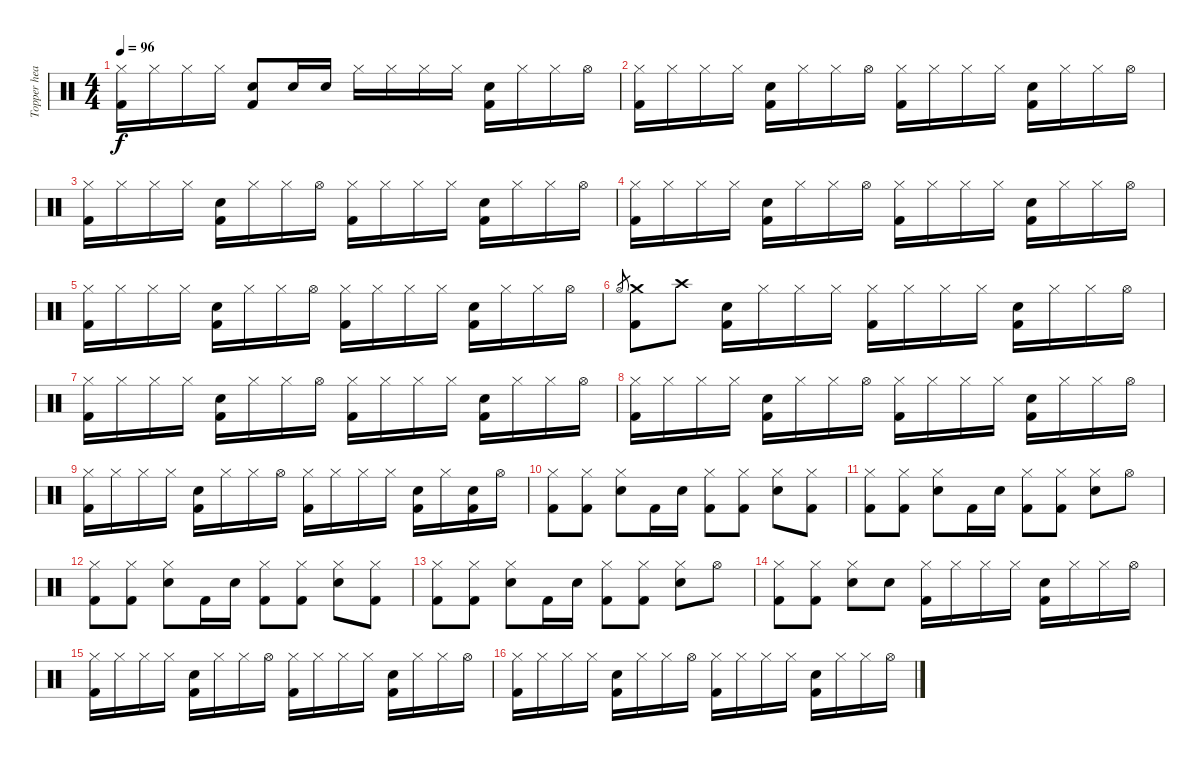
\track ("Topper headon (drum)" "Topper hea") {instrument percussion}
\staff {score}
\articulation defaults
\ts (4 4)
\tempo 96
\clef neutral
\ks c
("Hi-Hat (closed)" "Kick (hit) 2").16{dy f} "Hi-Hat (closed)".16 "Hi-Hat (closed)".16 "Hi-Hat (closed)".16 ("Electric Snare (hit)" "Kick (hit) 2").8 "Electric Snare (hit)".16 "Electric Snare (hit)".16 "Hi-Hat (closed)".16 "Hi-Hat (closed)".16 "Hi-Hat (closed)".16 "Hi-Hat (closed)".16 ("Electric Snare (hit)" "Kick (hit) 2").16 "Hi-Hat (closed)".16 "Hi-Hat (closed)".16 "Hi-Hat (open)".16 |
("Hi-Hat (closed)" "Kick (hit) 2").16 "Hi-Hat (closed)".16 "Hi-Hat (closed)".16 "Hi-Hat (closed)".16 ("Electric Snare (hit)" "Kick (hit) 2").16 "Hi-Hat (closed)".16 "Hi-Hat (closed)".16 "Hi-Hat (open)".16 ("Hi-Hat (closed)" "Kick (hit) 2").16 "Hi-Hat (closed)".16 "Hi-Hat (closed)".16 "Hi-Hat (closed)".16 ("Electric Snare (hit)" "Kick (hit) 2").16 "Hi-Hat (closed)".16 "Hi-Hat (closed)".16 "Hi-Hat (open)".16 |
("Hi-Hat (closed)" "Kick (hit) 2").16 "Hi-Hat (closed)".16 "Hi-Hat (closed)".16 "Hi-Hat (closed)".16 ("Electric Snare (hit)" "Kick (hit) 2").16 "Hi-Hat (closed)".16 "Hi-Hat (closed)".16 "Hi-Hat (open)".16 ("Hi-Hat (closed)" "Kick (hit) 2").16 "Hi-Hat (closed)".16 "Hi-Hat (closed)".16 "Hi-Hat (closed)".16 ("Electric Snare (hit)" "Kick (hit) 2").16 "Hi-Hat (closed)".16 "Hi-Hat (closed)".16 "Hi-Hat (open)".16 |
("Hi-Hat (closed)" "Kick (hit) 2").16 "Hi-Hat (closed)".16 "Hi-Hat (closed)".16 "Hi-Hat (closed)".16 ("Electric Snare (hit)" "Kick (hit) 2").16 "Hi-Hat (closed)".16 "Hi-Hat (closed)".16 "Hi-Hat (open)".16 ("Hi-Hat (closed)" "Kick (hit) 2").16 "Hi-Hat (closed)".16 "Hi-Hat (closed)".16 "Hi-Hat (closed)".16 ("Electric Snare (hit)" "Kick (hit) 2").16 "Hi-Hat (closed)".16 "Hi-Hat (closed)".16 "Hi-Hat (open)".16 |
("Hi-Hat (closed)" "Kick (hit) 2").16 "Hi-Hat (closed)".16 "Hi-Hat (closed)".16 "Hi-Hat (closed)".16 ("Electric Snare (hit)" "Kick (hit) 2").16 "Hi-Hat (closed)".16 "Hi-Hat (closed)".16 "Hi-Hat (open)".16 ("Hi-Hat (closed)" "Kick (hit) 2").16 "Hi-Hat (closed)".16 "Hi-Hat (closed)".16 "Hi-Hat (closed)".16 ("Electric Snare (hit)" "Kick (hit) 2").16 "Hi-Hat (closed)".16 "Hi-Hat (closed)".16 "Hi-Hat (open)".16 |
"Hi-Hat (open)".8{gr} ("Crash medium (hit)" "Kick (hit) 2").8 "Crash high (hit)".8 ("Electric Snare (hit)" "Kick (hit) 2").16 "Hi-Hat (closed)".16 "Hi-Hat (closed)".16 "Hi-Hat (closed)".16 ("Hi-Hat (closed)" "Kick (hit) 2").16 "Hi-Hat (closed)".16 "Hi-Hat (closed)".16 "Hi-Hat (closed)".16 ("Electric Snare (hit)" "Kick (hit) 2").16 "Hi-Hat (closed)".16 "Hi-Hat (closed)".16 "Hi-Hat (open)".16 |
("Hi-Hat (closed)" "Kick (hit) 2").16 "Hi-Hat (closed)".16 "Hi-Hat (closed)".16 "Hi-Hat (closed)".16 ("Electric Snare (hit)" "Kick (hit) 2").16 "Hi-Hat (closed)".16 "Hi-Hat (closed)".16 "Hi-Hat (open)".16 ("Hi-Hat (closed)" "Kick (hit) 2").16 "Hi-Hat (closed)".16 "Hi-Hat (closed)".16 "Hi-Hat (closed)".16 ("Electric Snare (hit)" "Kick (hit) 2").16 "Hi-Hat (closed)".16 "Hi-Hat (closed)".16 "Hi-Hat (open)".16 |
("Hi-Hat (closed)" "Kick (hit) 2").16 "Hi-Hat (closed)".16 "Hi-Hat (closed)".16 "Hi-Hat (closed)".16 ("Electric Snare (hit)" "Kick (hit) 2").16 "Hi-Hat (closed)".16 "Hi-Hat (closed)".16 "Hi-Hat (open)".16 ("Hi-Hat (closed)" "Kick (hit) 2").16 "Hi-Hat (closed)".16 "Hi-Hat (closed)".16 "Hi-Hat (closed)".16 ("Electric Snare (hit)" "Kick (hit) 2").16 "Hi-Hat (closed)".16 "Hi-Hat (closed)".16 "Hi-Hat (open)".16 |
("Hi-Hat (closed)" "Kick (hit) 2").16 "Hi-Hat (closed)".16 "Hi-Hat (closed)".16 "Hi-Hat (closed)".16 ("Electric Snare (hit)" "Kick (hit) 2").16 "Hi-Hat (closed)".16 "Hi-Hat (closed)".16 "Hi-Hat (open)".16 ("Hi-Hat (closed)" "Kick (hit) 2").16 "Hi-Hat (closed)".16 "Hi-Hat (closed)".16 "Hi-Hat (closed)".16 ("Electric Snare (hit)" "Kick (hit) 2").16 "Hi-Hat (closed)".16 ("Electric Snare (hit)" "Kick (hit) 2").16 "Hi-Hat (open)".16 |
("Hi-Hat (closed)" "Kick (hit) 2").8 ("Hi-Hat (closed)" "Kick (hit) 2").8 ("Hi-Hat (closed)" "Electric Snare (hit)").8 "Kick (hit) 2".16 "Electric Snare (hit)".16 ("Hi-Hat (closed)" "Kick (hit) 2").8 ("Hi-Hat (closed)" "Kick (hit) 2").8 ("Hi-Hat (closed)" "Electric Snare (hit)").8 ("Hi-Hat (closed)" "Kick (hit) 2").8 |
("Hi-Hat (closed)" "Kick (hit) 2").8 ("Hi-Hat (closed)" "Kick (hit) 2").8 ("Hi-Hat (closed)" "Electric Snare (hit)").8 "Kick (hit) 2".16 "Electric Snare (hit)".16 ("Hi-Hat (closed)" "Kick (hit) 2").8 ("Hi-Hat (closed)" "Kick (hit) 2").8 ("Hi-Hat (closed)" "Electric Snare (hit)").8 "Hi-Hat (open)".8 |
("Hi-Hat (closed)" "Kick (hit) 2").8 ("Hi-Hat (closed)" "Kick (hit) 2").8 ("Hi-Hat (closed)" "Electric Snare (hit)").8 "Kick (hit) 2".16 "Electric Snare (hit)".16 ("Hi-Hat (closed)" "Kick (hit) 2").8 ("Hi-Hat (closed)" "Kick (hit) 2").8 ("Hi-Hat (closed)" "Electric Snare (hit)").8 ("Hi-Hat (closed)" "Kick (hit) 2").8 |
("Hi-Hat (closed)" "Kick (hit) 2").8 ("Hi-Hat (closed)" "Kick (hit) 2").8 ("Hi-Hat (closed)" "Electric Snare (hit)").8 "Kick (hit) 2".16 "Electric Snare (hit)".16 ("Hi-Hat (closed)" "Kick (hit) 2").8 ("Hi-Hat (closed)" "Kick (hit) 2").8 ("Hi-Hat (closed)" "Electric Snare (hit)").8 "Hi-Hat (open)".8 |
("Hi-Hat (closed)" "Kick (hit) 2").8 ("Hi-Hat (closed)" "Kick (hit) 2").8 ("Hi-Hat (closed)" "Electric Snare (hit)").8 "Electric Snare (hit)".8 ("Hi-Hat (closed)" "Kick (hit) 2").16 "Hi-Hat (closed)".16 "Hi-Hat (closed)".16 "Hi-Hat (closed)".16 ("Electric Snare (hit)" "Kick (hit) 2").16 "Hi-Hat (closed)".16 "Hi-Hat (closed)".16 "Hi-Hat (open)".16 |
("Hi-Hat (closed)" "Kick (hit) 2").16 "Hi-Hat (closed)".16 "Hi-Hat (closed)".16 "Hi-Hat (closed)".16 ("Electric Snare (hit)" "Kick (hit) 2").16 "Hi-Hat (closed)".16 "Hi-Hat (closed)".16 "Hi-Hat (open)".16 ("Hi-Hat (closed)" "Kick (hit) 2").16 "Hi-Hat (closed)".16 "Hi-Hat (closed)".16 "Hi-Hat (closed)".16 ("Electric Snare (hit)" "Kick (hit) 2").16 "Hi-Hat (closed)".16 "Hi-Hat (closed)".16 "Hi-Hat (open)".16 |
("Hi-Hat (closed)" "Kick (hit) 2").16 "Hi-Hat (closed)".16 "Hi-Hat (closed)".16 "Hi-Hat (closed)".16 ("Electric Snare (hit)" "Kick (hit) 2").16 "Hi-Hat (closed)".16 "Hi-Hat (closed)".16 "Hi-Hat (open)".16 ("Hi-Hat (closed)" "Kick (hit) 2").16 "Hi-Hat (closed)".16 "Hi-Hat (closed)".16 "Hi-Hat (closed)".16 ("Electric Snare (hit)" "Kick (hit) 2").16 "Hi-Hat (closed)".16 "Hi-Hat (closed)".16 "Hi-Hat (open)".16
